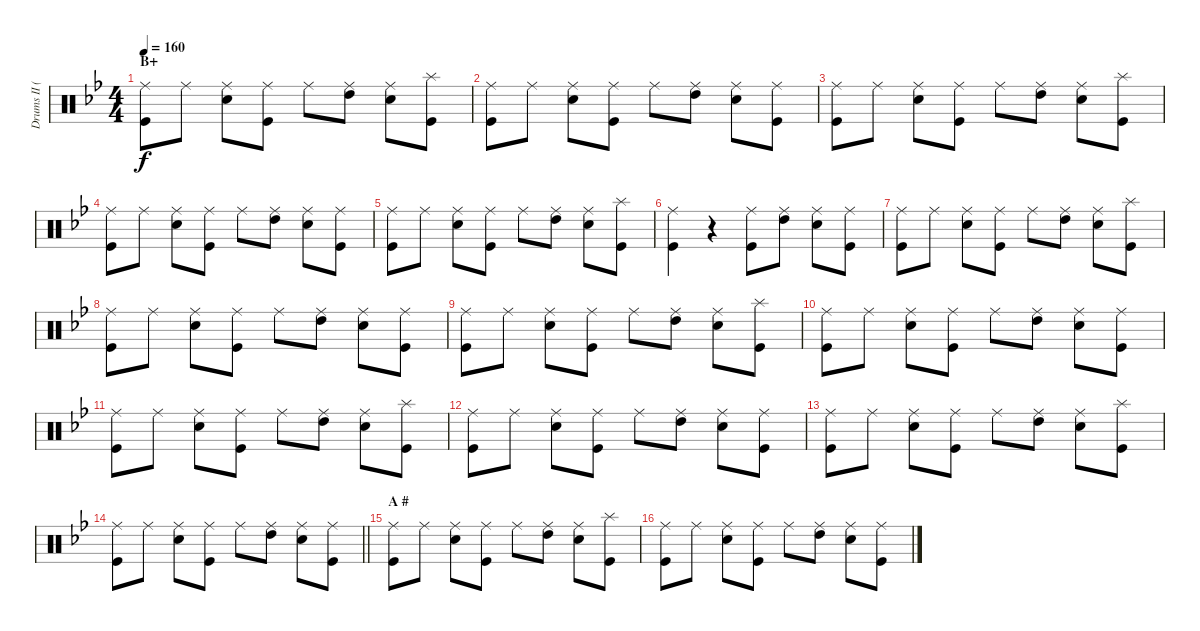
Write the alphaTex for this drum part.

\track ("Drums II (Tainaka Ritsu)" "Drums II (") {instrument percussion}
\staff {score}
\articulation defaults
\ts (4 4)
\section ("" "B+")
\tempo 160
\clef neutral
\ks bb
("Ride (middle)" "Kick (hit)").8{dy f} "Ride (middle)".8 ("Ride (middle)" "Snare (hit) 2").8 ("Ride (middle)" "Kick (hit)").8 "Ride (middle)".8 ("Ride (middle)" "High Tom (hit)").8 ("Ride (middle)" "Snare (hit) 2").8 ("Splash (hit)" "Kick (hit)").8 |
("Ride (middle)" "Kick (hit)").8 "Ride (middle)".8 ("Ride (middle)" "Snare (hit) 2").8 ("Ride (middle)" "Kick (hit)").8 "Ride (middle)".8 ("Ride (middle)" "High Tom (hit)").8 ("Ride (middle)" "Snare (hit) 2").8 ("Ride (middle)" "Kick (hit)").8 |
("Ride (middle)" "Kick (hit)").8 "Ride (middle)".8 ("Ride (middle)" "Snare (hit) 2").8 ("Ride (middle)" "Kick (hit)").8 "Ride (middle)".8 ("Ride (middle)" "High Tom (hit)").8 ("Ride (middle)" "Snare (hit) 2").8 ("Splash (hit)" "Kick (hit)").8 |
("Ride (middle)" "Kick (hit)").8 "Ride (middle)".8 ("Ride (middle)" "Snare (hit) 2").8 ("Ride (middle)" "Kick (hit)").8 "Ride (middle)".8 ("Ride (middle)" "High Tom (hit)").8 ("Ride (middle)" "Snare (hit) 2").8 ("Ride (middle)" "Kick (hit)").8 |
("Ride (middle)" "Kick (hit)").8 "Ride (middle)".8 ("Ride (middle)" "Snare (hit) 2").8 ("Ride (middle)" "Kick (hit)").8 "Ride (middle)".8 ("Ride (middle)" "High Tom (hit)").8 ("Ride (middle)" "Snare (hit) 2").8 ("Splash (hit)" "Kick (hit)").8 |
("Ride (middle)" "Kick (hit)").4 r.4 ("Ride (middle)" "Kick (hit)").8 ("Ride (middle)" "High Tom (hit)").8 ("Ride (middle)" "Snare (hit) 2").8 ("Ride (middle)" "Kick (hit)").8 |
("Ride (middle)" "Kick (hit)").8 "Ride (middle)".8 ("Ride (middle)" "Snare (hit) 2").8 ("Ride (middle)" "Kick (hit)").8 "Ride (middle)".8 ("Ride (middle)" "High Tom (hit)").8 ("Ride (middle)" "Snare (hit) 2").8 ("Splash (hit)" "Kick (hit)").8 |
("Ride (middle)" "Kick (hit)").8 "Ride (middle)".8 ("Ride (middle)" "Snare (hit) 2").8 ("Ride (middle)" "Kick (hit)").8 "Ride (middle)".8 ("Ride (middle)" "High Tom (hit)").8 ("Ride (middle)" "Snare (hit) 2").8 ("Ride (middle)" "Kick (hit)").8 |
("Ride (middle)" "Kick (hit)").8 "Ride (middle)".8 ("Ride (middle)" "Snare (hit) 2").8 ("Ride (middle)" "Kick (hit)").8 "Ride (middle)".8 ("Ride (middle)" "High Tom (hit)").8 ("Ride (middle)" "Snare (hit) 2").8 ("Splash (hit)" "Kick (hit)").8 |
("Ride (middle)" "Kick (hit)").8 "Ride (middle)".8 ("Ride (middle)" "Snare (hit) 2").8 ("Ride (middle)" "Kick (hit)").8 "Ride (middle)".8 ("Ride (middle)" "High Tom (hit)").8 ("Ride (middle)" "Snare (hit) 2").8 ("Ride (middle)" "Kick (hit)").8 |
("Ride (middle)" "Kick (hit)").8 "Ride (middle)".8 ("Ride (middle)" "Snare (hit) 2").8 ("Ride (middle)" "Kick (hit)").8 "Ride (middle)".8 ("Ride (middle)" "High Tom (hit)").8 ("Ride (middle)" "Snare (hit) 2").8 ("Splash (hit)" "Kick (hit)").8 |
("Ride (middle)" "Kick (hit)").8 "Ride (middle)".8 ("Ride (middle)" "Snare (hit) 2").8 ("Ride (middle)" "Kick (hit)").8 "Ride (middle)".8 ("Ride (middle)" "High Tom (hit)").8 ("Ride (middle)" "Snare (hit) 2").8 ("Ride (middle)" "Kick (hit)").8 |
("Ride (middle)" "Kick (hit)").8 "Ride (middle)".8 ("Ride (middle)" "Snare (hit) 2").8 ("Ride (middle)" "Kick (hit)").8 "Ride (middle)".8 ("Ride (middle)" "High Tom (hit)").8 ("Ride (middle)" "Snare (hit) 2").8 ("Splash (hit)" "Kick (hit)").8 |
\barLineRight lightlight
("Ride (middle)" "Kick (hit)").8 "Ride (middle)".8 ("Ride (middle)" "Snare (hit) 2").8 ("Ride (middle)" "Kick (hit)").8 "Ride (middle)".8 ("Ride (middle)" "High Tom (hit)").8 ("Ride (middle)" "Snare (hit) 2").8 ("Ride (middle)" "Kick (hit)").8 |
\section ("" "A #")
("Ride (middle)" "Kick (hit)").8 "Ride (middle)".8 ("Ride (middle)" "Snare (hit) 2").8 ("Ride (middle)" "Kick (hit)").8 "Ride (middle)".8 ("Ride (middle)" "High Tom (hit)").8 ("Ride (middle)" "Snare (hit) 2").8 ("Splash (hit)" "Kick (hit)").8 |
("Ride (middle)" "Kick (hit)").8 "Ride (middle)".8 ("Ride (middle)" "Snare (hit) 2").8 ("Ride (middle)" "Kick (hit)").8 "Ride (middle)".8 ("Ride (middle)" "High Tom (hit)").8 ("Ride (middle)" "Snare (hit) 2").8 ("Ride (middle)" "Kick (hit)").8
